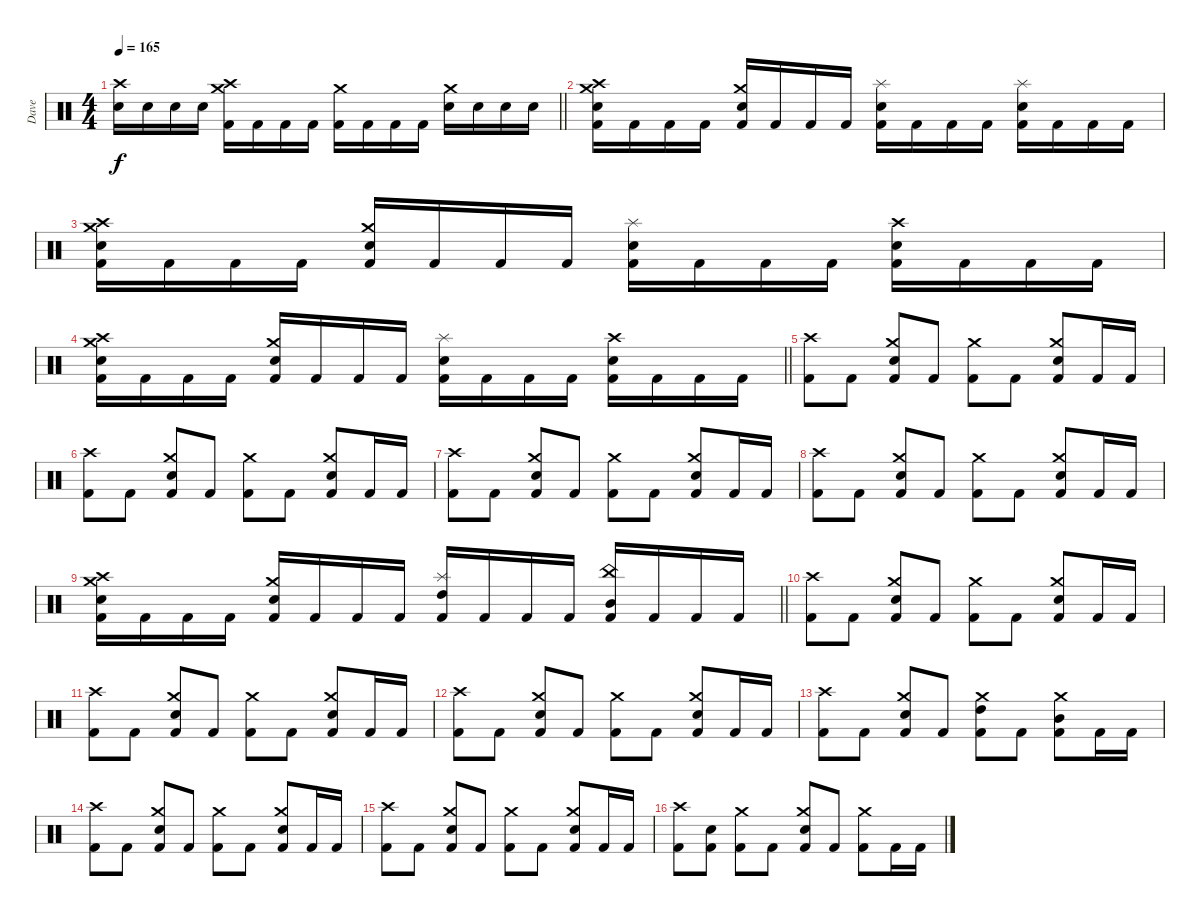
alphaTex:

\track ("Dave" "Dave") {mute instrument percussion}
\staff
\articulation defaults
\ts (4 4)
\tempo 165
\clef neutral
\barLineRight lightlight
\ks c
("Crash high (hit)" "Snare (hit) 2").16{dy f} "Snare (hit) 2".16 "Snare (hit) 2".16 "Snare (hit) 2".16 ("Crash medium (hit)" "Crash high (hit)" "Kick (hit) 2").16 "Kick (hit) 2".16 "Kick (hit) 2".16 "Kick (hit) 2".16 ("Crash medium (hit)" "Kick (hit) 2").16 "Kick (hit) 2".16 "Kick (hit) 2".16 "Kick (hit) 2".16 ("Crash medium (hit)" "Snare (hit) 2").16 "Snare (hit) 2".16 "Snare (hit) 2".16 "Snare (hit) 2".16 |
("Crash high (hit)" "Crash medium (hit)" "Snare (hit) 2" "Kick (hit) 2").16 "Kick (hit) 2".16 "Kick (hit) 2".16 "Kick (hit) 2".16 ("Crash medium (hit)" "Snare (hit) 2" "Kick (hit) 2").16 "Kick (hit) 2".16 "Kick (hit) 2".16 "Kick (hit) 2".16 ("Splash (hit)" "Snare (hit) 2" "Kick (hit) 2").16 "Kick (hit) 2".16 "Kick (hit) 2".16 "Kick (hit) 2".16 ("Splash (hit)" "Snare (hit) 2" "Kick (hit) 2").16 "Kick (hit) 2".16 "Kick (hit) 2".16 "Kick (hit) 2".16 |
("Crash high (hit)" "Crash medium (hit)" "Snare (hit) 2" "Kick (hit) 2").16 "Kick (hit) 2".16 "Kick (hit) 2".16 "Kick (hit) 2".16 ("Crash medium (hit)" "Snare (hit) 2" "Kick (hit) 2").16 "Kick (hit) 2".16 "Kick (hit) 2".16 "Kick (hit) 2".16 ("Splash (hit)" "Snare (hit) 2" "Kick (hit) 2").16 "Kick (hit) 2".16 "Kick (hit) 2".16 "Kick (hit) 2".16 ("Crash high (hit)" "Snare (hit) 2" "Kick (hit) 2").16 "Kick (hit) 2".16 "Kick (hit) 2".16 "Kick (hit) 2".16 |
\barLineRight lightlight
("Crash high (hit)" "Crash medium (hit)" "Snare (hit) 2" "Kick (hit) 2").16 "Kick (hit) 2".16 "Kick (hit) 2".16 "Kick (hit) 2".16 ("Crash medium (hit)" "Snare (hit) 2" "Kick (hit) 2").16 "Kick (hit) 2".16 "Kick (hit) 2".16 "Kick (hit) 2".16 ("Splash (hit)" "Snare (hit) 2" "Kick (hit) 2").16 "Kick (hit) 2".16 "Kick (hit) 2".16 "Kick (hit) 2".16 ("Crash high (hit)" "Snare (hit) 2" "Kick (hit) 2").16 "Kick (hit) 2".16 "Kick (hit) 2".16 "Kick (hit) 2".16 |
("Crash high (hit)" "Kick (hit) 2").8 "Kick (hit) 2".8 ("Crash medium (hit)" "Snare (hit) 2" "Kick (hit) 2").8 "Kick (hit) 2".8 ("Crash medium (hit)" "Kick (hit) 2").8 "Kick (hit) 2".8 ("Crash medium (hit)" "Snare (hit) 2" "Kick (hit) 2").8 "Kick (hit) 2".16 "Kick (hit) 2".16 |
("Crash high (hit)" "Kick (hit) 2").8 "Kick (hit) 2".8 ("Crash medium (hit)" "Snare (hit) 2" "Kick (hit) 2").8 "Kick (hit) 2".8 ("Crash medium (hit)" "Kick (hit) 2").8 "Kick (hit) 2".8 ("Crash medium (hit)" "Snare (hit) 2" "Kick (hit) 2").8 "Kick (hit) 2".16 "Kick (hit) 2".16 |
("Crash high (hit)" "Kick (hit) 2").8 "Kick (hit) 2".8 ("Crash medium (hit)" "Snare (hit) 2" "Kick (hit) 2").8 "Kick (hit) 2".8 ("Crash medium (hit)" "Kick (hit) 2").8 "Kick (hit) 2".8 ("Crash medium (hit)" "Snare (hit) 2" "Kick (hit) 2").8 "Kick (hit) 2".16 "Kick (hit) 2".16 |
("Crash high (hit)" "Kick (hit) 2").8 "Kick (hit) 2".8 ("Crash medium (hit)" "Snare (hit) 2" "Kick (hit) 2").8 "Kick (hit) 2".8 ("Crash medium (hit)" "Kick (hit) 2").8 "Kick (hit) 2".8 ("Crash medium (hit)" "Snare (hit) 2" "Kick (hit) 2").8 "Kick (hit) 2".16 "Kick (hit) 2".16 |
\barLineRight lightlight
("Crash high (hit)" "Crash medium (hit)" "Snare (hit) 2" "Kick (hit) 2").16 "Kick (hit) 2".16 "Kick (hit) 2".16 "Kick (hit) 2".16 ("Crash medium (hit)" "Snare (hit) 2" "Kick (hit) 2").16 "Kick (hit) 2".16 "Kick (hit) 2".16 "Kick (hit) 2".16 ("Splash (hit)" "High Tom (hit)" "Kick (hit) 2").16 "Kick (hit) 2".16 "Kick (hit) 2".16 "Kick (hit) 2".16 ("China (hit)" "Mid Tom (hit)" "Kick (hit) 2").16 "Kick (hit) 2".16 "Kick (hit) 2".16 "Kick (hit) 2".16 |
("Crash high (hit)" "Kick (hit) 2").8 "Kick (hit) 2".8 ("Crash medium (hit)" "Snare (hit) 2" "Kick (hit) 2").8 "Kick (hit) 2".8 ("Crash medium (hit)" "Kick (hit) 2").8 "Kick (hit) 2".8 ("Crash medium (hit)" "Snare (hit) 2" "Kick (hit) 2").8 "Kick (hit) 2".16 "Kick (hit) 2".16 |
("Crash high (hit)" "Kick (hit) 2").8 "Kick (hit) 2".8 ("Crash medium (hit)" "Snare (hit) 2" "Kick (hit) 2").8 "Kick (hit) 2".8 ("Crash medium (hit)" "Kick (hit) 2").8 "Kick (hit) 2".8 ("Crash medium (hit)" "Snare (hit) 2" "Kick (hit) 2").8 "Kick (hit) 2".16 "Kick (hit) 2".16 |
("Crash high (hit)" "Kick (hit) 2").8 "Kick (hit) 2".8 ("Crash medium (hit)" "Snare (hit) 2" "Kick (hit) 2").8 "Kick (hit) 2".8 ("Crash medium (hit)" "Kick (hit) 2").8 "Kick (hit) 2".8 ("Crash medium (hit)" "Snare (hit) 2" "Kick (hit) 2").8 "Kick (hit) 2".16 "Kick (hit) 2".16 |
("Crash high (hit)" "Kick (hit) 2").8 "Kick (hit) 2".8 ("Crash medium (hit)" "Snare (hit) 2" "Kick (hit) 2").8 "Kick (hit) 2".8 ("Crash medium (hit)" "High Tom (hit)" "Kick (hit) 2").8 "Kick (hit) 2".8 ("Crash medium (hit)" "Mid Tom (hit)" "Kick (hit) 2").8 "Kick (hit) 2".16 "Kick (hit) 2".16 |
("Crash high (hit)" "Kick (hit) 2").8 "Kick (hit) 2".8 ("Crash medium (hit)" "Snare (hit) 2" "Kick (hit) 2").8 "Kick (hit) 2".8 ("Crash medium (hit)" "Kick (hit) 2").8 "Kick (hit) 2".8 ("Crash medium (hit)" "Snare (hit) 2" "Kick (hit) 2").8 "Kick (hit) 2".16 "Kick (hit) 2".16 |
("Crash high (hit)" "Kick (hit) 2").8 "Kick (hit) 2".8 ("Crash medium (hit)" "Snare (hit) 2" "Kick (hit) 2").8 "Kick (hit) 2".8 ("Crash medium (hit)" "Kick (hit) 2").8 "Kick (hit) 2".8 ("Crash medium (hit)" "Snare (hit) 2" "Kick (hit) 2").8 "Kick (hit) 2".16 "Kick (hit) 2".16 |
("Crash high (hit)" "Kick (hit) 2").8 ("Snare (hit) 2" "Kick (hit) 2").8 ("Crash medium (hit)" "Kick (hit) 2").8 "Kick (hit) 2".8 ("Crash medium (hit)" "Snare (hit) 2" "Kick (hit) 2").8 "Kick (hit) 2".8 ("Crash medium (hit)" "Kick (hit) 2").8 "Kick (hit) 2".16 "Kick (hit) 2".16
